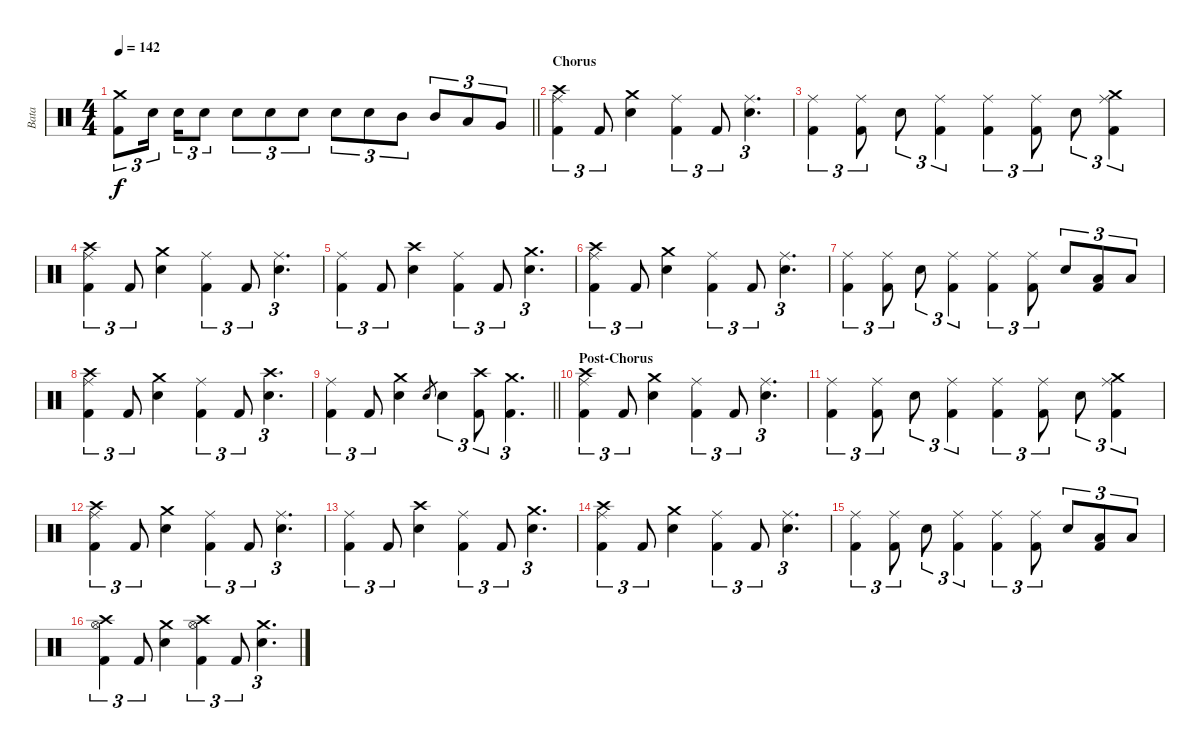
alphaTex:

\track ("Bata" "Bata") {instrument percussion}
\staff {score}
\articulation defaults
\ts (4 4)
\tempo 142
\clef neutral
\barLineRight lightlight
\ks c
("Crash medium (hit)" "Kick (hit) 2").8{tu (3 2) dy f} "Electric Snare (hit)".16{tu (3 2) beam splitsecondary} "Electric Snare (hit)".16{tu (3 2)} "Electric Snare (hit)".8{tu (3 2)} "Electric Snare (hit)".8{tu (3 2)} "Electric Snare (hit)".8{tu (3 2)} "Electric Snare (hit)".8{tu (3 2)} "Electric Snare (hit)".8{tu (3 2)} "Electric Snare (hit)".8{tu (3 2)} "Mid Tom (hit)".8{tu (3 2)} "Mid Tom (hit)".8{tu (3 2)} "Low Tom (hit)".8{tu (3 2)} "Very Low Tom (hit)".8{tu (3 2)} |
\section ("" "Chorus")
("Crash high (hit)" "Ride (middle)" "Kick (hit) 2").4{tu (3 2)} "Kick (hit) 2".8{tu (3 2)} ("Crash medium (hit)" "Electric Snare (hit)").4 ("Ride (middle)" "Kick (hit) 2").4{tu (3 2)} "Kick (hit) 2".8{tu (3 2)} ("Ride (middle)" "Electric Snare (hit)").4{d tu (3 2)} |
("Ride (middle)" "Kick (hit) 2").4{tu (3 2)} ("Ride (middle)" "Kick (hit) 2").8{tu (3 2)} "Electric Snare (hit)".8{tu (3 2)} ("Ride (middle)" "Kick (hit) 2").4{tu (3 2)} ("Ride (middle)" "Kick (hit) 2").4{tu (3 2)} ("Ride (middle)" "Kick (hit) 2").8{tu (3 2)} "Electric Snare (hit)".8{tu (3 2)} ("Crash medium (hit)" "Ride (middle)" "Kick (hit) 2").4{tu (3 2)} |
("Crash high (hit)" "Ride (middle)" "Kick (hit) 2").4{tu (3 2)} "Kick (hit) 2".8{tu (3 2)} ("Crash medium (hit)" "Electric Snare (hit)").4 ("Ride (middle)" "Kick (hit) 2").4{tu (3 2)} "Kick (hit) 2".8{tu (3 2)} ("Ride (middle)" "Electric Snare (hit)").4{d tu (3 2)} |
("Ride (middle)" "Kick (hit) 2").4{tu (3 2)} "Kick (hit) 2".8{tu (3 2)} ("Crash high (hit)" "Electric Snare (hit)").4 ("Ride (middle)" "Kick (hit) 2").4{tu (3 2)} "Kick (hit) 2".8{tu (3 2)} ("Crash medium (hit)" "Electric Snare (hit)").4{d tu (3 2)} |
("Crash high (hit)" "Ride (middle)" "Kick (hit) 2").4{tu (3 2)} "Kick (hit) 2".8{tu (3 2)} ("Crash medium (hit)" "Electric Snare (hit)").4 ("Ride (middle)" "Kick (hit) 2").4{tu (3 2)} "Kick (hit) 2".8{tu (3 2)} ("Ride (middle)" "Electric Snare (hit)").4{d tu (3 2)} |
("Ride (middle)" "Kick (hit) 2").4{tu (3 2)} ("Ride (middle)" "Kick (hit) 2").8{tu (3 2)} "Electric Snare (hit)".8{tu (3 2)} ("Ride (middle)" "Kick (hit) 2").4{tu (3 2)} ("Ride (middle)" "Kick (hit) 2").4{tu (3 2)} ("Ride (middle)" "Kick (hit) 2").8{tu (3 2)} "Electric Snare (hit)".8{tu (3 2)} ("Low Tom (hit)" "Kick (hit) 2").8{tu (3 2)} "Low Tom (hit)".8{tu (3 2)} |
("Crash high (hit)" "Ride (middle)" "Kick (hit) 2").4{tu (3 2)} "Kick (hit) 2".8{tu (3 2)} ("Crash medium (hit)" "Electric Snare (hit)").4 ("Ride (middle)" "Kick (hit) 2").4{tu (3 2)} "Kick (hit) 2".8{tu (3 2)} ("Crash high (hit)" "Electric Snare (hit)").4{d tu (3 2)} |
\barLineRight lightlight
("Ride (middle)" "Kick (hit) 2").4{tu (3 2)} "Kick (hit) 2".8{tu (3 2)} ("Crash medium (hit)" "Electric Snare (hit)").4 "Electric Snare (hit)".8{gr} "Electric Snare (hit)".4{tu (3 2)} ("Crash high (hit)" "Kick (hit) 2").8{tu (3 2)} ("Crash medium (hit)" "Kick (hit) 2").4{d tu (3 2)} |
\section ("" "Post-Chorus")
("Crash high (hit)" "Ride (middle)" "Kick (hit) 2").4{tu (3 2)} "Kick (hit) 2".8{tu (3 2)} ("Crash medium (hit)" "Electric Snare (hit)").4 ("Ride (middle)" "Kick (hit) 2").4{tu (3 2)} "Kick (hit) 2".8{tu (3 2)} ("Ride (middle)" "Electric Snare (hit)").4{d tu (3 2)} |
("Ride (middle)" "Kick (hit) 2").4{tu (3 2)} ("Ride (middle)" "Kick (hit) 2").8{tu (3 2)} "Electric Snare (hit)".8{tu (3 2)} ("Ride (middle)" "Kick (hit) 2").4{tu (3 2)} ("Ride (middle)" "Kick (hit) 2").4{tu (3 2)} ("Ride (middle)" "Kick (hit) 2").8{tu (3 2)} "Electric Snare (hit)".8{tu (3 2)} ("Crash medium (hit)" "Ride (middle)" "Kick (hit) 2").4{tu (3 2)} |
("Crash high (hit)" "Ride (middle)" "Kick (hit) 2").4{tu (3 2)} "Kick (hit) 2".8{tu (3 2)} ("Crash medium (hit)" "Electric Snare (hit)").4 ("Ride (middle)" "Kick (hit) 2").4{tu (3 2)} "Kick (hit) 2".8{tu (3 2)} ("Ride (middle)" "Electric Snare (hit)").4{d tu (3 2)} |
("Ride (middle)" "Kick (hit) 2").4{tu (3 2)} "Kick (hit) 2".8{tu (3 2)} ("Crash high (hit)" "Electric Snare (hit)").4 ("Ride (middle)" "Kick (hit) 2").4{tu (3 2)} "Kick (hit) 2".8{tu (3 2)} ("Crash medium (hit)" "Electric Snare (hit)").4{d tu (3 2)} |
("Crash high (hit)" "Ride (middle)" "Kick (hit) 2").4{tu (3 2)} "Kick (hit) 2".8{tu (3 2)} ("Crash medium (hit)" "Electric Snare (hit)").4 ("Ride (middle)" "Kick (hit) 2").4{tu (3 2)} "Kick (hit) 2".8{tu (3 2)} ("Ride (middle)" "Electric Snare (hit)").4{d tu (3 2)} |
("Ride (middle)" "Kick (hit) 2").4{tu (3 2)} ("Ride (middle)" "Kick (hit) 2").8{tu (3 2)} "Electric Snare (hit)".8{tu (3 2)} ("Ride (middle)" "Kick (hit) 2").4{tu (3 2)} ("Ride (middle)" "Kick (hit) 2").4{tu (3 2)} ("Ride (middle)" "Kick (hit) 2").8{tu (3 2)} "Electric Snare (hit)".8{tu (3 2)} ("Low Tom (hit)" "Kick (hit) 2").8{tu (3 2)} "Low Tom (hit)".8{tu (3 2)} |
("Crash high (hit)" "Hi-Hat (open)" "Kick (hit) 2").4{tu (3 2)} "Kick (hit) 2".8{tu (3 2)} ("Crash medium (hit)" "Electric Snare (hit)").4 ("Crash high (hit)" "Hi-Hat (open)" "Kick (hit) 2").4{tu (3 2)} "Kick (hit) 2".8{tu (3 2)} ("Crash medium (hit)" "Electric Snare (hit)").4{d tu (3 2)}
